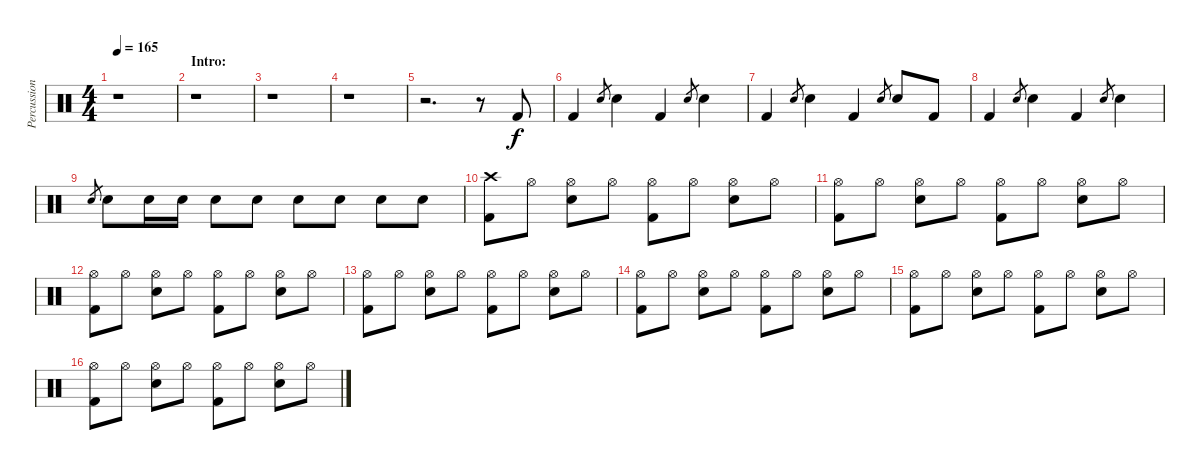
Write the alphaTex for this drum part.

\track ("Percussion" "Percussion") {instrument percussion}
\staff {score}
\articulation defaults
\ts (4 4)
\tempo 165
\clef neutral
\ks c
r.1{dy f} |
\section ("" "Intro:")
r.1 |
r.1 |
r.1 |
r.2{d} r.8 "Kick (hit) 2".8 |
"Kick (hit) 2".4 "Snare (hit) 2".8{gr} "Snare (hit) 2".4 "Kick (hit) 2".4 "Snare (hit) 2".8{gr} "Snare (hit) 2".4 |
"Kick (hit) 2".4 "Snare (hit) 2".8{gr} "Snare (hit) 2".4 "Kick (hit) 2".4 "Snare (hit) 2".8{gr} "Snare (hit) 2".8 "Kick (hit) 2".8 |
"Kick (hit) 2".4 "Snare (hit) 2".8{gr} "Snare (hit) 2".4 "Kick (hit) 2".4 "Snare (hit) 2".8{gr} "Snare (hit) 2".4 |
"Snare (hit) 2".8{gr} "Snare (hit) 2".8 "Snare (hit) 2".16 "Snare (hit) 2".16 "Snare (hit) 2".8 "Snare (hit) 2".8 "Snare (hit) 2".8 "Snare (hit) 2".8 "Snare (hit) 2".8 "Snare (hit) 2".8 |
("Crash high (hit)" "Kick (hit) 2").8 "Hi-Hat (open)".8 ("Hi-Hat (open)" "Snare (hit) 2").8 "Hi-Hat (open)".8 ("Hi-Hat (open)" "Kick (hit) 2").8 "Hi-Hat (open)".8 ("Hi-Hat (open)" "Snare (hit) 2").8 "Hi-Hat (open)".8 |
("Hi-Hat (open)" "Kick (hit) 2").8 "Hi-Hat (open)".8 ("Hi-Hat (open)" "Snare (hit) 2").8 "Hi-Hat (open)".8 ("Hi-Hat (open)" "Kick (hit) 2").8 "Hi-Hat (open)".8 ("Hi-Hat (open)" "Snare (hit) 2").8 "Hi-Hat (open)".8 |
("Hi-Hat (open)" "Kick (hit) 2").8 "Hi-Hat (open)".8 ("Hi-Hat (open)" "Snare (hit) 2").8 "Hi-Hat (open)".8 ("Hi-Hat (open)" "Kick (hit) 2").8 "Hi-Hat (open)".8 ("Hi-Hat (open)" "Snare (hit) 2").8 "Hi-Hat (open)".8 |
("Hi-Hat (open)" "Kick (hit) 2").8 "Hi-Hat (open)".8 ("Hi-Hat (open)" "Snare (hit) 2").8 "Hi-Hat (open)".8 ("Hi-Hat (open)" "Kick (hit) 2").8 "Hi-Hat (open)".8 ("Hi-Hat (open)" "Snare (hit) 2").8 "Hi-Hat (open)".8 |
("Hi-Hat (open)" "Kick (hit) 2").8 "Hi-Hat (open)".8 ("Hi-Hat (open)" "Snare (hit) 2").8 "Hi-Hat (open)".8 ("Hi-Hat (open)" "Kick (hit) 2").8 "Hi-Hat (open)".8 ("Hi-Hat (open)" "Snare (hit) 2").8 "Hi-Hat (open)".8 |
("Hi-Hat (open)" "Kick (hit) 2").8 "Hi-Hat (open)".8 ("Hi-Hat (open)" "Snare (hit) 2").8 "Hi-Hat (open)".8 ("Hi-Hat (open)" "Kick (hit) 2").8 "Hi-Hat (open)".8 ("Hi-Hat (open)" "Snare (hit) 2").8 "Hi-Hat (open)".8 |
("Hi-Hat (open)" "Kick (hit) 2").8 "Hi-Hat (open)".8 ("Hi-Hat (open)" "Snare (hit) 2").8 "Hi-Hat (open)".8 ("Hi-Hat (open)" "Kick (hit) 2").8 "Hi-Hat (open)".8 ("Hi-Hat (open)" "Snare (hit) 2").8 "Hi-Hat (open)".8
